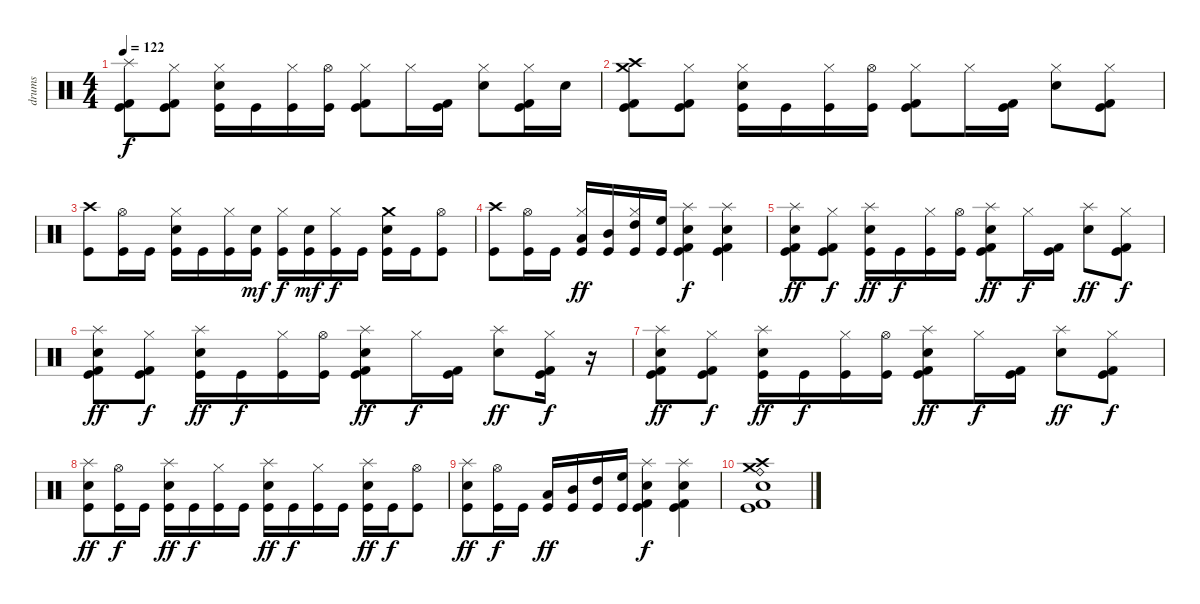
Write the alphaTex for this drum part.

\track ("drums" "drums") {instrument percussion}
\staff {score}
\articulation defaults
\ts (4 4)
\tempo 122
\clef neutral
\ks c
("Splash (hit)" "Kick (hit) 2" "Kick (hit)").8{dy f} ("Hi-Hat (closed)" "Kick (hit) 2" "Kick (hit)").8 ("Hi-Hat (closed)" "Electric Snare (hit)" "Kick (hit)").16 "Kick (hit)".16 ("Hi-Hat (closed)" "Kick (hit)").16 ("Hi-Hat (open)" "Kick (hit)").16 ("Hi-Hat (closed)" "Kick (hit) 2" "Kick (hit)").8 "Hi-Hat (closed)".16 ("Kick (hit) 2" "Kick (hit)").16 ("Hi-Hat (closed)" "Electric Snare (hit)").8 ("Hi-Hat (closed)" "Kick (hit) 2" "Kick (hit)").16 "Electric Snare (hit)".16 |
("Crash high (hit)" "Crash medium (hit)" "Kick (hit) 2" "Kick (hit)").8 ("Hi-Hat (closed)" "Kick (hit) 2" "Kick (hit)").8 ("Hi-Hat (closed)" "Electric Snare (hit)" "Kick (hit)").16 "Kick (hit)".16 ("Hi-Hat (closed)" "Kick (hit)").16 ("Hi-Hat (open)" "Kick (hit)").16 ("Hi-Hat (closed)" "Kick (hit) 2" "Kick (hit)").8 "Hi-Hat (closed)".16 ("Kick (hit) 2" "Kick (hit)").16 ("Hi-Hat (closed)" "Electric Snare (hit)").8 ("Hi-Hat (closed)" "Kick (hit) 2" "Kick (hit)").8 |
("Crash high (hit)" "Kick (hit)").8 ("Hi-Hat (open)" "Kick (hit)").16 "Kick (hit)".16 ("Hi-Hat (closed)" "Electric Snare (hit)" "Kick (hit)").16 "Kick (hit)".16 ("Hi-Hat (closed)" "Kick (hit)").16 ("Electric Snare (hit)" "Kick (hit)").16{dy mf} ("Hi-Hat (closed)" "Kick (hit)").16{dy f} ("Electric Snare (hit)" "Kick (hit)").16{dy mf} ("Hi-Hat (closed)" "Kick (hit)").16{dy f} "Kick (hit)".16 ("Crash medium (hit)" "Electric Snare (hit)" "Kick (hit)").16 "Kick (hit)".16 ("Hi-Hat (open)" "Kick (hit)").8 |
("Crash high (hit)" "Kick (hit)").8 ("Hi-Hat (open)" "Kick (hit)").16 "Kick (hit)".16 ("Hi-Hat (closed)" "Low Tom (hit)" "Kick (hit)").16{dy ff} ("Mid Tom (hit)" "Kick (hit)").16 ("Hi-Hat (closed)" "High Tom (hit)" "Kick (hit)").16 ("High Floor Tom (hit)" "Kick (hit)").16 ("Splash (hit)" "Electric Snare (hit)" "Kick (hit) 2" "Kick (hit)").4{dy f} ("Splash (hit)" "Electric Snare (hit)" "Kick (hit) 2" "Kick (hit)").4 |
("Splash (hit)" "Electric Snare (hit)" "Kick (hit) 2" "Kick (hit)").8{dy ff} ("Hi-Hat (closed)" "Kick (hit) 2" "Kick (hit)").8{dy f} ("Splash (hit)" "Electric Snare (hit)" "Kick (hit)").16{dy ff} "Kick (hit)".16{dy f} ("Hi-Hat (closed)" "Kick (hit)").16 ("Hi-Hat (open)" "Kick (hit)").16 ("Splash (hit)" "Electric Snare (hit)" "Kick (hit) 2" "Kick (hit)").8{dy ff} "Hi-Hat (closed)".16{dy f} ("Kick (hit) 2" "Kick (hit)").16 ("Splash (hit)" "Electric Snare (hit)").8{dy ff} ("Hi-Hat (closed)" "Kick (hit) 2" "Kick (hit)").8{dy f} |
("Splash (hit)" "Electric Snare (hit)" "Kick (hit) 2" "Kick (hit)").8{dy ff} ("Hi-Hat (closed)" "Kick (hit) 2" "Kick (hit)").8{dy f} ("Splash (hit)" "Electric Snare (hit)" "Kick (hit)").16{dy ff} "Kick (hit)".16{dy f} ("Hi-Hat (closed)" "Kick (hit)").16 ("Hi-Hat (open)" "Kick (hit)").16 ("Splash (hit)" "Electric Snare (hit)" "Kick (hit) 2" "Kick (hit)").8{dy ff} "Hi-Hat (closed)".16{dy f} ("Kick (hit) 2" "Kick (hit)").16 ("Splash (hit)" "Electric Snare (hit)").8{dy ff} ("Hi-Hat (closed)" "Kick (hit) 2" "Kick (hit)").16{dy f} r.16 |
("Splash (hit)" "Electric Snare (hit)" "Kick (hit) 2" "Kick (hit)").8{dy ff} ("Hi-Hat (closed)" "Kick (hit) 2" "Kick (hit)").8{dy f} ("Splash (hit)" "Electric Snare (hit)" "Kick (hit)").16{dy ff} "Kick (hit)".16{dy f} ("Hi-Hat (closed)" "Kick (hit)").16 ("Hi-Hat (open)" "Kick (hit)").16 ("Splash (hit)" "Electric Snare (hit)" "Kick (hit) 2" "Kick (hit)").8{dy ff} "Hi-Hat (closed)".16{dy f} ("Kick (hit) 2" "Kick (hit)").16 ("Splash (hit)" "Electric Snare (hit)").8{dy ff} ("Hi-Hat (closed)" "Kick (hit) 2" "Kick (hit)").8{dy f} |
("Splash (hit)" "Electric Snare (hit)" "Kick (hit)").8{dy ff} ("Hi-Hat (open)" "Kick (hit)").16{dy f} "Kick (hit)".16 ("Splash (hit)" "Electric Snare (hit)" "Kick (hit)").16{dy ff} "Kick (hit)".16{dy f} ("Hi-Hat (closed)" "Kick (hit)").16 "Kick (hit)".16 ("Splash (hit)" "Electric Snare (hit)" "Kick (hit)").16{dy ff} "Kick (hit)".16{dy f} ("Hi-Hat (closed)" "Kick (hit)").16 "Kick (hit)".16 ("Splash (hit)" "Electric Snare (hit)" "Kick (hit)").16{dy ff} "Kick (hit)".16{dy f} ("Hi-Hat (open)" "Kick (hit)").8 |
("Splash (hit)" "Electric Snare (hit)" "Kick (hit)").8{dy ff} ("Hi-Hat (open)" "Kick (hit)").16{dy f} "Kick (hit)".16 ("Low Tom (hit)" "Kick (hit)").16{dy ff} ("Mid Tom (hit)" "Kick (hit)").16 ("High Tom (hit)" "Kick (hit)").16 ("High Floor Tom (hit)" "Kick (hit)").16 ("Splash (hit)" "Electric Snare (hit)" "Kick (hit) 2" "Kick (hit)").4{dy f} ("Splash (hit)" "Electric Snare (hit)" "Kick (hit) 2" "Kick (hit)").4 |
("Crash medium (hit)" "Crash high (hit)" "Electric Snare (hit)" "Kick (hit)" "Kick (hit) 2" "Ride (bell)").1{volume 0}
